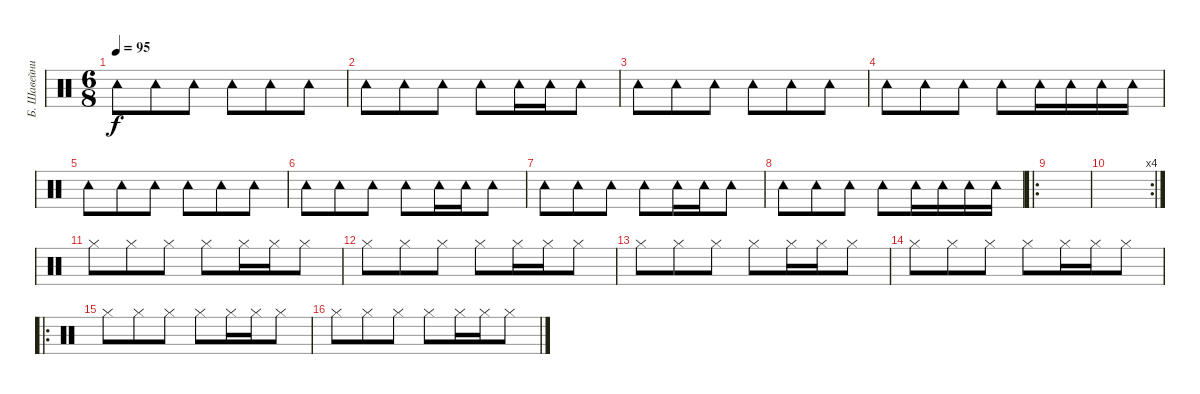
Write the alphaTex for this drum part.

\track ("Б. Шавейников" "Б. Шавейни") {instrument percussion}
\staff {score}
\articulation defaults
\ts (6 8)
\tempo 95
\clef neutral
\ks c "Tambourine (hit)".8{dy f} "Tambourine (hit)".8 "Tambourine (hit)".8 "Tambourine (hit)".8 "Tambourine (hit)".8 "Tambourine (hit)".8
|
"Tambourine (hit)".8 "Tambourine (hit)".8 "Tambourine (hit)".8 "Tambourine (hit)".8 "Tambourine (hit)".16 "Tambourine (hit)".16 "Tambourine (hit)".8 |
"Tambourine (hit)".8 "Tambourine (hit)".8 "Tambourine (hit)".8 "Tambourine (hit)".8 "Tambourine (hit)".8 "Tambourine (hit)".8 |
"Tambourine (hit)".8 "Tambourine (hit)".8 "Tambourine (hit)".8 "Tambourine (hit)".8 "Tambourine (hit)".16 "Tambourine (hit)".16 "Tambourine (hit)".16 "Tambourine (hit)".16 |
"Tambourine (hit)".8 "Tambourine (hit)".8 "Tambourine (hit)".8 "Tambourine (hit)".8 "Tambourine (hit)".8 "Tambourine (hit)".8 |
"Tambourine (hit)".8 "Tambourine (hit)".8 "Tambourine (hit)".8 "Tambourine (hit)".8 "Tambourine (hit)".16 "Tambourine (hit)".16 "Tambourine (hit)".8 |
"Tambourine (hit)".8 "Tambourine (hit)".8 "Tambourine (hit)".8 "Tambourine (hit)".8 "Tambourine (hit)".16 "Tambourine (hit)".16 "Tambourine (hit)".8 |
"Tambourine (hit)".8 "Tambourine (hit)".8 "Tambourine (hit)".8 "Tambourine (hit)".8 "Tambourine (hit)".16 "Tambourine (hit)".16 "Tambourine (hit)".16 "Tambourine (hit)".16 |
\ro
|
\rc 4
|
"Hi-Hat (closed)".8 "Hi-Hat (closed)".8 "Hi-Hat (closed)".8 "Hi-Hat (closed)".8 "Hi-Hat (closed)".16 "Hi-Hat (closed)".16 "Hi-Hat (closed)".8 |
"Hi-Hat (closed)".8 "Hi-Hat (closed)".8 "Hi-Hat (closed)".8 "Hi-Hat (closed)".8 "Hi-Hat (closed)".16 "Hi-Hat (closed)".16 "Hi-Hat (closed)".8 |
"Hi-Hat (closed)".8 "Hi-Hat (closed)".8 "Hi-Hat (closed)".8 "Hi-Hat (closed)".8 "Hi-Hat (closed)".16 "Hi-Hat (closed)".16 "Hi-Hat (closed)".8 |
"Hi-Hat (closed)".8 "Hi-Hat (closed)".8 "Hi-Hat (closed)".8 "Hi-Hat (closed)".8 "Hi-Hat (closed)".16 "Hi-Hat (closed)".16 "Hi-Hat (closed)".8 |
\ro "Hi-Hat (closed)".8 "Hi-Hat (closed)".8 "Hi-Hat (closed)".8 "Hi-Hat (closed)".8 "Hi-Hat (closed)".16 "Hi-Hat (closed)".16 "Hi-Hat (closed)".8
|
"Hi-Hat (closed)".8 "Hi-Hat (closed)".8 "Hi-Hat (closed)".8 "Hi-Hat (closed)".8 "Hi-Hat (closed)".16 "Hi-Hat (closed)".16 "Hi-Hat (closed)".8
